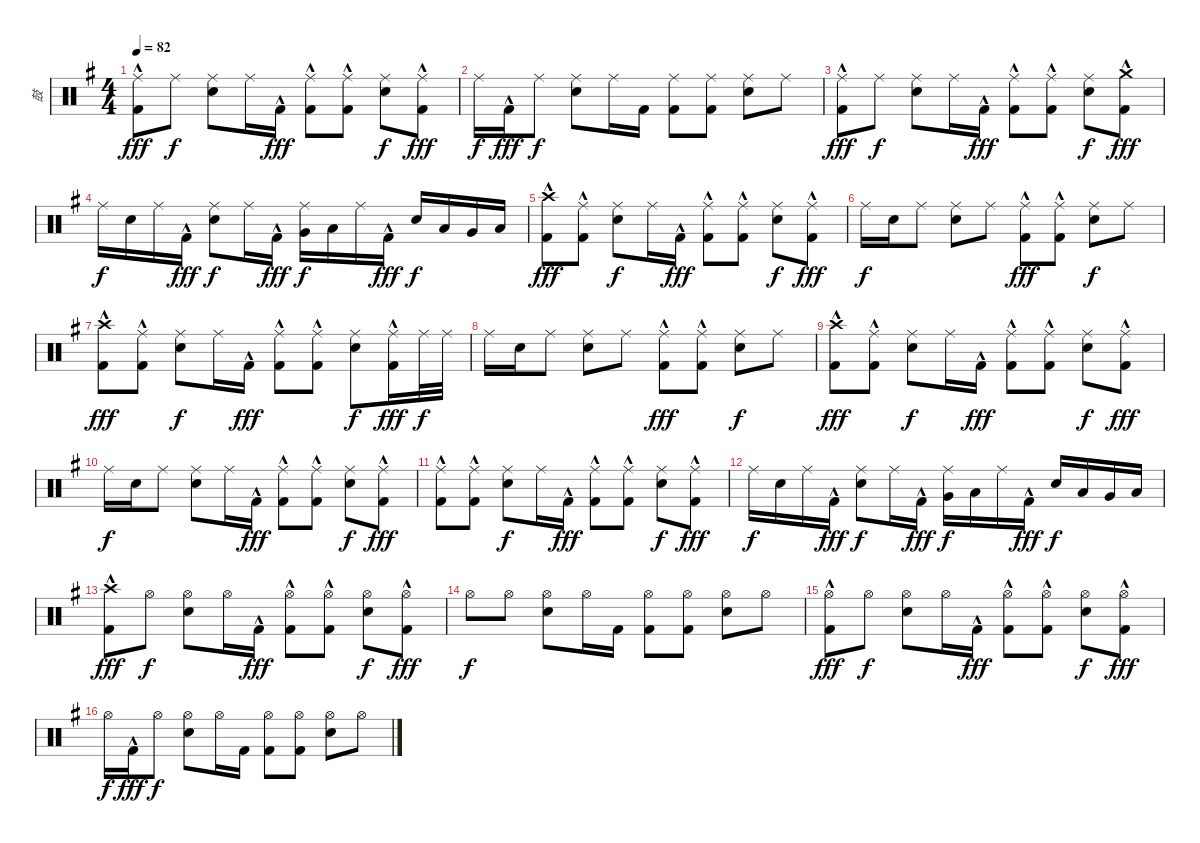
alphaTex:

\track ("鼓" "鼓") {instrument percussion}
\staff {score}
\articulation defaults
\ts (4 4)
\tempo 82
\clef neutral
\ks g
("Ride (middle)" "Kick (hit) 2"{hac}).8{dy fff} "Ride (middle)".8{dy f} ("Ride (middle)" "Electric Snare (hit)").8 "Ride (middle)".16 "Kick (hit) 2"{hac}.16{dy fff} ("Ride (middle)" "Kick (hit) 2"{hac}).8 ("Ride (middle)" "Kick (hit) 2"{hac}).8 ("Ride (middle)" "Electric Snare (hit)").8{dy f} ("Ride (middle)" "Kick (hit) 2"{hac}).8{dy fff} |
"Ride (middle)".16{dy f} "Kick (hit) 2"{hac}.16{dy fff} "Ride (middle)".8{dy f} ("Ride (middle)" "Electric Snare (hit)").8 "Ride (middle)".16 "Kick (hit) 2".16 ("Ride (middle)" "Kick (hit) 2").8 ("Ride (middle)" "Kick (hit) 2").8 ("Ride (middle)" "Electric Snare (hit)").8 "Ride (middle)".8 |
("Ride (middle)" "Kick (hit) 2"{hac}).8{dy fff} "Ride (middle)".8{dy f} ("Ride (middle)" "Electric Snare (hit)").8 "Ride (middle)".16 "Kick (hit) 2"{hac}.16{dy fff} ("Ride (middle)" "Kick (hit) 2"{hac}).8 ("Ride (middle)" "Kick (hit) 2"{hac}).8 ("Ride (middle)" "Electric Snare (hit)").8{dy f} ("Crash medium (hit)" "Kick (hit) 2"{hac}).8{dy fff} |
"Ride (middle)".16{dy f} "Electric Snare (hit)".16 "Ride (middle)".16 "Kick (hit) 2"{hac}.16{dy fff} ("Ride (middle)" "Electric Snare (hit)").8{dy f} "Ride (middle)".16 "Kick (hit) 2"{hac}.16{dy fff} ("Ride (middle)" "Very Low Tom (hit)").16{dy f} "Low Floor Tom (hit)".16 "Ride (middle)".16 "Kick (hit) 2"{hac}.16{dy fff} "Electric Snare (hit)".16{dy f} "Low Tom (hit)".16 "Very Low Tom (hit)".16 "Low Floor Tom (hit)".16 |
("Crash high (hit)" "Kick (hit) 2"{hac}).8{dy fff} ("Ride (middle)" "Kick (hit) 2"{hac}).8 ("Ride (middle)" "Electric Snare (hit)").8{dy f} "Ride (middle)".16 "Kick (hit) 2"{hac}.16{dy fff} ("Ride (middle)" "Kick (hit) 2"{hac}).8 ("Ride (middle)" "Kick (hit) 2"{hac}).8 ("Ride (middle)" "Electric Snare (hit)").8{dy f} ("Ride (middle)" "Kick (hit) 2"{hac}).8{dy fff} |
"Ride (middle)".16{dy f} "Electric Snare (hit)".16 "Ride (middle)".8 ("Ride (middle)" "Electric Snare (hit)").8 "Ride (middle)".8 ("Ride (middle)" "Kick (hit) 2"{hac}).8{dy fff} ("Ride (middle)" "Kick (hit) 2"{hac}).8 ("Ride (middle)" "Electric Snare (hit)").8{dy f} "Ride (middle)".8 |
("Crash high (hit)" "Kick (hit) 2"{hac}).8{dy fff} ("Ride (middle)" "Kick (hit) 2"{hac}).8 ("Ride (middle)" "Electric Snare (hit)").8{dy f} "Ride (middle)".16 "Kick (hit) 2"{hac}.16{dy fff} ("Ride (middle)" "Kick (hit) 2"{hac}).8 ("Ride (middle)" "Kick (hit) 2"{hac}).8 ("Ride (middle)" "Electric Snare (hit)").8{dy f} ("Ride (middle)" "Kick (hit) 2"{hac}).16{dy fff} "Ride (middle)".32{dy f} "Ride (middle)".32 |
"Ride (middle)".16 "Electric Snare (hit)".16 "Ride (middle)".8 ("Ride (middle)" "Electric Snare (hit)").8 "Ride (middle)".8 ("Ride (middle)" "Kick (hit) 2"{hac}).8{dy fff} ("Ride (middle)" "Kick (hit) 2"{hac}).8 ("Ride (middle)" "Electric Snare (hit)").8{dy f} "Ride (middle)".8 |
("Crash high (hit)" "Kick (hit) 2"{hac}).8{dy fff} ("Ride (middle)" "Kick (hit) 2"{hac}).8 ("Ride (middle)" "Electric Snare (hit)").8{dy f} "Ride (middle)".16 "Kick (hit) 2"{hac}.16{dy fff} ("Ride (middle)" "Kick (hit) 2"{hac}).8 ("Ride (middle)" "Kick (hit) 2"{hac}).8 ("Ride (middle)" "Electric Snare (hit)").8{dy f} ("Ride (middle)" "Kick (hit) 2"{hac}).8{dy fff} |
"Ride (middle)".16{dy f} "Electric Snare (hit)".16 "Ride (middle)".8 ("Ride (middle)" "Electric Snare (hit)").8 "Ride (middle)".16 "Kick (hit) 2"{hac}.16{dy fff} ("Ride (middle)" "Kick (hit) 2"{hac}).8 ("Ride (middle)" "Kick (hit) 2"{hac}).8 ("Ride (middle)" "Electric Snare (hit)").8{dy f} ("Ride (middle)" "Kick (hit) 2"{hac}).8{dy fff} |
("Ride (middle)" "Kick (hit) 2"{hac}).8 ("Ride (middle)" "Kick (hit) 2"{hac}).8 ("Ride (middle)" "Electric Snare (hit)").8{dy f} "Ride (middle)".16 "Kick (hit) 2"{hac}.16{dy fff} ("Ride (middle)" "Kick (hit) 2"{hac}).8 ("Ride (middle)" "Kick (hit) 2"{hac}).8 ("Ride (middle)" "Electric Snare (hit)").8{dy f} ("Ride (middle)" "Kick (hit) 2"{hac}).8{dy fff} |
"Ride (middle)".16{dy f} "Electric Snare (hit)".16 "Ride (middle)".16 "Kick (hit) 2"{hac}.16{dy fff} ("Ride (middle)" "Electric Snare (hit)").8{dy f} "Ride (middle)".16 "Kick (hit) 2"{hac}.16{dy fff} ("Ride (middle)" "Very Low Tom (hit)").16{dy f} "Low Floor Tom (hit)".16 "Ride (middle)".16 "Kick (hit) 2"{hac}.16{dy fff} "Electric Snare (hit)".16{dy f} "Low Tom (hit)".16 "Very Low Tom (hit)".16 "Low Floor Tom (hit)".16 |
("Crash high (hit)" "Kick (hit) 2"{hac}).8{dy fff} "Hi-Hat (open)".8{dy f} ("Hi-Hat (open)" "Electric Snare (hit)").8 "Hi-Hat (open)".16 "Kick (hit) 2"{hac}.16{dy fff} ("Hi-Hat (open)" "Kick (hit) 2"{hac}).8 ("Hi-Hat (open)" "Kick (hit) 2"{hac}).8 ("Hi-Hat (open)" "Electric Snare (hit)").8{dy f} ("Hi-Hat (open)" "Kick (hit) 2"{hac}).8{dy fff} |
"Hi-Hat (open)".8{dy f} "Hi-Hat (open)".8 ("Hi-Hat (open)" "Electric Snare (hit)").8 "Hi-Hat (open)".16 "Kick (hit) 2".16 ("Hi-Hat (open)" "Kick (hit) 2").8 ("Hi-Hat (open)" "Kick (hit) 2").8 ("Hi-Hat (open)" "Electric Snare (hit)").8 "Hi-Hat (open)".8 |
("Hi-Hat (open)" "Kick (hit) 2"{hac}).8{dy fff} "Hi-Hat (open)".8{dy f} ("Hi-Hat (open)" "Electric Snare (hit)").8 "Hi-Hat (open)".16 "Kick (hit) 2"{hac}.16{dy fff} ("Hi-Hat (open)" "Kick (hit) 2"{hac}).8 ("Hi-Hat (open)" "Kick (hit) 2"{hac}).8 ("Hi-Hat (open)" "Electric Snare (hit)").8{dy f} ("Hi-Hat (open)" "Kick (hit) 2"{hac}).8{dy fff} |
"Hi-Hat (open)".16{dy f} "Kick (hit) 2"{hac}.16{dy fff} "Hi-Hat (open)".8{dy f} ("Hi-Hat (open)" "Electric Snare (hit)").8 "Hi-Hat (open)".16 "Kick (hit) 2".16 ("Hi-Hat (open)" "Kick (hit) 2").8 ("Hi-Hat (open)" "Kick (hit) 2").8 ("Hi-Hat (open)" "Electric Snare (hit)").8 "Hi-Hat (open)".8
